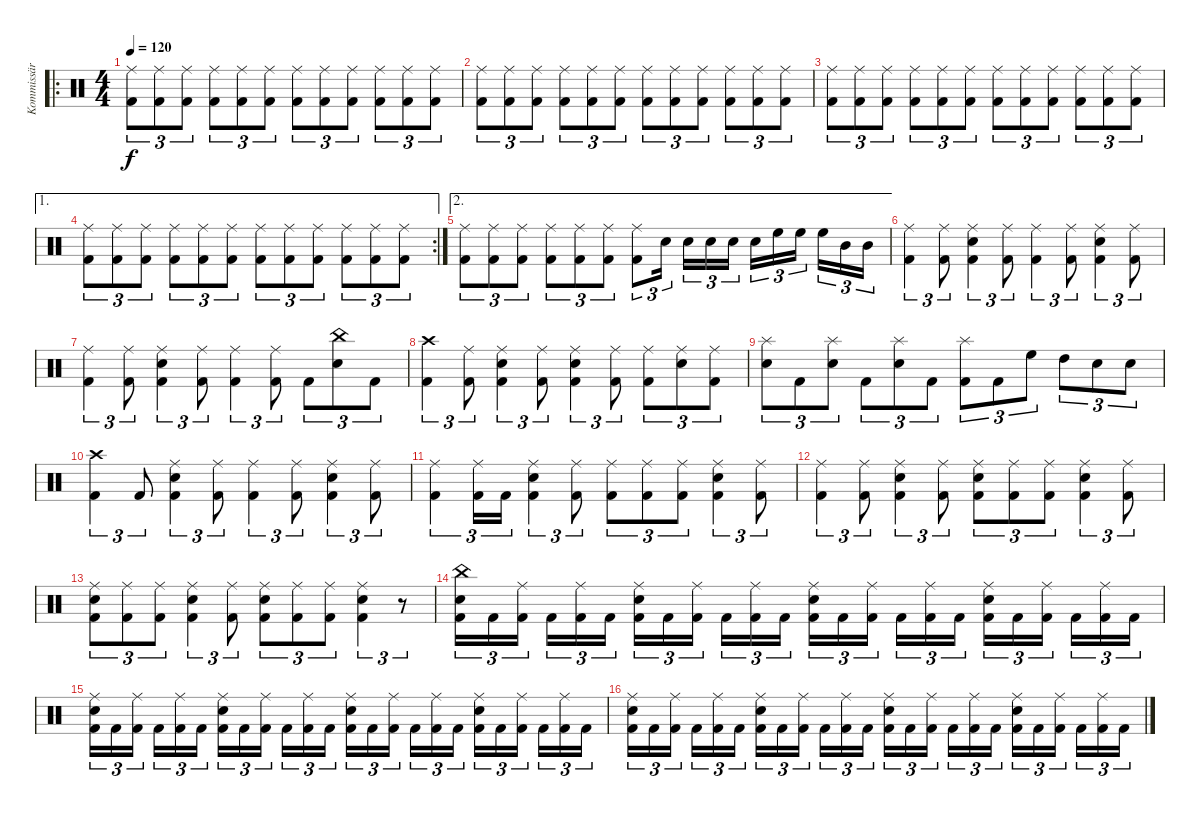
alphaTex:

\track ("Kommissär Ogrim" "Kommissär ") {instrument percussion}
\staff {score}
\articulation defaults
\ro
\ts (4 4)
\tempo 120
\clef neutral
\ks c
("Ride (middle)" "Kick (hit) 2").8{tu (3 2) dy f} ("Ride (middle)" "Kick (hit) 2").8{tu (3 2)} ("Ride (middle)" "Kick (hit) 2").8{tu (3 2)} ("Ride (middle)" "Kick (hit) 2").8{tu (3 2)} ("Ride (middle)" "Kick (hit) 2").8{tu (3 2)} ("Ride (middle)" "Kick (hit) 2").8{tu (3 2)} ("Ride (middle)" "Kick (hit) 2").8{tu (3 2)} ("Ride (middle)" "Kick (hit) 2").8{tu (3 2)} ("Ride (middle)" "Kick (hit) 2").8{tu (3 2)} ("Ride (middle)" "Kick (hit) 2").8{tu (3 2)} ("Ride (middle)" "Kick (hit) 2").8{tu (3 2)} ("Ride (middle)" "Kick (hit) 2").8{tu (3 2)} |
("Ride (middle)" "Kick (hit) 2").8{tu (3 2)} ("Ride (middle)" "Kick (hit) 2").8{tu (3 2)} ("Ride (middle)" "Kick (hit) 2").8{tu (3 2)} ("Ride (middle)" "Kick (hit) 2").8{tu (3 2)} ("Ride (middle)" "Kick (hit) 2").8{tu (3 2)} ("Ride (middle)" "Kick (hit) 2").8{tu (3 2)} ("Ride (middle)" "Kick (hit) 2").8{tu (3 2)} ("Ride (middle)" "Kick (hit) 2").8{tu (3 2)} ("Ride (middle)" "Kick (hit) 2").8{tu (3 2)} ("Ride (middle)" "Kick (hit) 2").8{tu (3 2)} ("Ride (middle)" "Kick (hit) 2").8{tu (3 2)} ("Ride (middle)" "Kick (hit) 2").8{tu (3 2)} |
("Ride (middle)" "Kick (hit) 2").8{tu (3 2)} ("Ride (middle)" "Kick (hit) 2").8{tu (3 2)} ("Ride (middle)" "Kick (hit) 2").8{tu (3 2)} ("Ride (middle)" "Kick (hit) 2").8{tu (3 2)} ("Ride (middle)" "Kick (hit) 2").8{tu (3 2)} ("Ride (middle)" "Kick (hit) 2").8{tu (3 2)} ("Ride (middle)" "Kick (hit) 2").8{tu (3 2)} ("Ride (middle)" "Kick (hit) 2").8{tu (3 2)} ("Ride (middle)" "Kick (hit) 2").8{tu (3 2)} ("Ride (middle)" "Kick (hit) 2").8{tu (3 2)} ("Ride (middle)" "Kick (hit) 2").8{tu (3 2)} ("Ride (middle)" "Kick (hit) 2").8{tu (3 2)} |
\ae 1
\rc 2
("Ride (middle)" "Kick (hit) 2").8{tu (3 2)} ("Ride (middle)" "Kick (hit) 2").8{tu (3 2)} ("Ride (middle)" "Kick (hit) 2").8{tu (3 2)} ("Ride (middle)" "Kick (hit) 2").8{tu (3 2)} ("Ride (middle)" "Kick (hit) 2").8{tu (3 2)} ("Ride (middle)" "Kick (hit) 2").8{tu (3 2)} ("Ride (middle)" "Kick (hit) 2").8{tu (3 2)} ("Ride (middle)" "Kick (hit) 2").8{tu (3 2)} ("Ride (middle)" "Kick (hit) 2").8{tu (3 2)} ("Ride (middle)" "Kick (hit) 2").8{tu (3 2)} ("Ride (middle)" "Kick (hit) 2").8{tu (3 2)} ("Ride (middle)" "Kick (hit) 2").8{tu (3 2)} |
\ae 2
("Ride (middle)" "Kick (hit) 2").8{tu (3 2)} ("Ride (middle)" "Kick (hit) 2").8{tu (3 2)} ("Ride (middle)" "Kick (hit) 2").8{tu (3 2)} ("Ride (middle)" "Kick (hit) 2").8{tu (3 2)} ("Ride (middle)" "Kick (hit) 2").8{tu (3 2)} ("Ride (middle)" "Kick (hit) 2").8{tu (3 2)} ("Ride (middle)" "Kick (hit) 2").8{tu (3 2)} "Snare (hit) 2".16{tu (3 2)} "Snare (hit) 2".16{tu (3 2)} "Snare (hit) 2".16{tu (3 2)} "Snare (hit) 2".16{tu (3 2)} "Snare (hit) 2".16{tu (3 2)} "High Floor Tom (hit)".16{tu (3 2)} "High Floor Tom (hit)".16{tu (3 2)} "High Floor Tom (hit)".16{tu (3 2)} "Mid Tom (hit)".16{tu (3 2)} "Mid Tom (hit)".16{tu (3 2)} |
("Ride (middle)" "Kick (hit) 2").4{tu (3 2)} ("Ride (middle)" "Kick (hit) 2").8{tu (3 2)} ("Snare (hit) 2" "Ride (middle)" "Kick (hit) 2").4{tu (3 2)} ("Ride (middle)" "Kick (hit) 2").8{tu (3 2)} ("Ride (middle)" "Kick (hit) 2").4{tu (3 2)} ("Ride (middle)" "Kick (hit) 2").8{tu (3 2)} ("Snare (hit) 2" "Ride (middle)" "Kick (hit) 2").4{tu (3 2)} ("Ride (middle)" "Kick (hit) 2").8{tu (3 2)} |
("Ride (middle)" "Kick (hit) 2").4{tu (3 2)} ("Ride (middle)" "Kick (hit) 2").8{tu (3 2)} ("Snare (hit) 2" "Ride (middle)" "Kick (hit) 2").4{tu (3 2)} ("Ride (middle)" "Kick (hit) 2").8{tu (3 2)} ("Ride (middle)" "Kick (hit) 2").4{tu (3 2)} ("Ride (middle)" "Kick (hit) 2").8{tu (3 2)} "Kick (hit) 2".8{tu (3 2)} ("Snare (hit) 2" "China (hit)").8{tu (3 2)} "Kick (hit) 2".8{tu (3 2)} |
("Crash high (hit)" "Kick (hit) 2").4{tu (3 2)} ("Ride (middle)" "Kick (hit) 2").8{tu (3 2)} ("Snare (hit) 2" "Ride (middle)" "Kick (hit) 2").4{tu (3 2)} ("Ride (middle)" "Kick (hit) 2").8{tu (3 2)} ("Snare (hit) 2" "Ride (middle)" "Kick (hit) 2").4{tu (3 2)} ("Ride (middle)" "Kick (hit) 2").8{tu (3 2)} ("Ride (middle)" "Kick (hit) 2").8{tu (3 2)} ("Snare (hit) 2" "Ride (middle)").8{tu (3 2)} ("Ride (middle)" "Kick (hit) 2").8{tu (3 2)} |
("Snare (hit) 2" "Splash (hit)").8{tu (3 2)} "Kick (hit) 2".8{tu (3 2)} ("Snare (hit) 2" "Splash (hit)").8{tu (3 2)} "Kick (hit) 2".8{tu (3 2)} ("Snare (hit) 2" "Splash (hit)").8{tu (3 2)} "Kick (hit) 2".8{tu (3 2)} ("Splash (hit)" "Kick (hit) 2").8{tu (3 2)} "Kick (hit) 2".8{tu (3 2)} "High Floor Tom (hit)".8{tu (3 2)} "High Tom (hit)".8{tu (3 2)} "Snare (hit) 2".8{tu (3 2)} "Snare (hit) 2".8{tu (3 2)} |
("Crash high (hit)" "Kick (hit) 2").4{tu (3 2)} "Kick (hit) 2".8{tu (3 2)} ("Snare (hit) 2" "Ride (middle)" "Kick (hit) 2").4{tu (3 2)} ("Ride (middle)" "Kick (hit) 2").8{tu (3 2)} ("Ride (middle)" "Kick (hit) 2").4{tu (3 2)} ("Ride (middle)" "Kick (hit) 2").8{tu (3 2)} ("Snare (hit) 2" "Ride (middle)" "Kick (hit) 2").4{tu (3 2)} ("Ride (middle)" "Kick (hit) 2").8{tu (3 2)} |
("Ride (middle)" "Kick (hit) 2").4{tu (3 2)} ("Ride (middle)" "Kick (hit) 2").16{tu (3 2)} "Kick (hit) 2".16{tu (3 2)} ("Snare (hit) 2" "Ride (middle)" "Kick (hit) 2").4{tu (3 2)} ("Ride (middle)" "Kick (hit) 2").8{tu (3 2)} ("Ride (middle)" "Kick (hit) 2").8{tu (3 2)} ("Ride (middle)" "Kick (hit) 2").8{tu (3 2)} ("Ride (middle)" "Kick (hit) 2").8{tu (3 2)} ("Snare (hit) 2" "Ride (middle)" "Kick (hit) 2").4{tu (3 2)} ("Ride (middle)" "Kick (hit) 2").8{tu (3 2)} |
("Ride (middle)" "Kick (hit) 2").4{tu (3 2)} ("Ride (middle)" "Kick (hit) 2").8{tu (3 2)} ("Snare (hit) 2" "Ride (middle)" "Kick (hit) 2").4{tu (3 2)} ("Ride (middle)" "Kick (hit) 2").8{tu (3 2)} ("Snare (hit) 2" "Ride (middle)" "Kick (hit) 2").8{tu (3 2)} ("Ride (middle)" "Kick (hit) 2").8{tu (3 2)} ("Ride (middle)" "Kick (hit) 2").8{tu (3 2)} ("Snare (hit) 2" "Ride (middle)" "Kick (hit) 2").4{tu (3 2)} ("Ride (middle)" "Kick (hit) 2").8{tu (3 2)} |
("Snare (hit) 2" "Ride (middle)" "Kick (hit) 2").8{tu (3 2)} ("Ride (middle)" "Kick (hit) 2").8{tu (3 2)} ("Ride (middle)" "Kick (hit) 2").8{tu (3 2)} ("Snare (hit) 2" "Ride (middle)" "Kick (hit) 2").4{tu (3 2)} ("Ride (middle)" "Kick (hit) 2").8{tu (3 2)} ("Snare (hit) 2" "Ride (middle)" "Kick (hit) 2").8{tu (3 2)} ("Ride (middle)" "Kick (hit) 2").8{tu (3 2)} ("Ride (middle)" "Kick (hit) 2").8{tu (3 2)} ("Snare (hit) 2" "Ride (middle)" "Kick (hit) 2").4{tu (3 2)} r.8{tu (3 2)} |
("Snare (hit) 2" "China (hit)" "Kick (hit) 2").16{tu (3 2)} "Kick (hit) 2".16{tu (3 2)} ("Ride (middle)" "Kick (hit) 2").16{tu (3 2)} "Kick (hit) 2".16{tu (3 2)} ("Ride (middle)" "Kick (hit) 2").16{tu (3 2)} "Kick (hit) 2".16{tu (3 2)} ("Snare (hit) 2" "Ride (middle)" "Kick (hit) 2").16{tu (3 2)} "Kick (hit) 2".16{tu (3 2)} ("Ride (middle)" "Kick (hit) 2").16{tu (3 2)} "Kick (hit) 2".16{tu (3 2)} ("Ride (middle)" "Kick (hit) 2").16{tu (3 2)} "Kick (hit) 2".16{tu (3 2)} ("Snare (hit) 2" "Ride (middle)" "Kick (hit) 2").16{tu (3 2)} "Kick (hit) 2".16{tu (3 2)} ("Ride (middle)" "Kick (hit) 2").16{tu (3 2)} "Kick (hit) 2".16{tu (3 2)} ("Ride (middle)" "Kick (hit) 2").16{tu (3 2)} "Kick (hit) 2".16{tu (3 2)} ("Snare (hit) 2" "Ride (middle)" "Kick (hit) 2").16{tu (3 2)} "Kick (hit) 2".16{tu (3 2)} ("Ride (middle)" "Kick (hit) 2").16{tu (3 2)} "Kick (hit) 2".16{tu (3 2)} ("Ride (middle)" "Kick (hit) 2").16{tu (3 2)} "Kick (hit) 2".16{tu (3 2)} |
("Snare (hit) 2" "Ride (middle)" "Kick (hit) 2").16{tu (3 2)} "Kick (hit) 2".16{tu (3 2)} ("Ride (middle)" "Kick (hit) 2").16{tu (3 2)} "Kick (hit) 2".16{tu (3 2)} ("Ride (middle)" "Kick (hit) 2").16{tu (3 2)} "Kick (hit) 2".16{tu (3 2)} ("Snare (hit) 2" "Ride (middle)" "Kick (hit) 2").16{tu (3 2)} "Kick (hit) 2".16{tu (3 2)} ("Ride (middle)" "Kick (hit) 2").16{tu (3 2)} "Kick (hit) 2".16{tu (3 2)} ("Ride (middle)" "Kick (hit) 2").16{tu (3 2)} "Kick (hit) 2".16{tu (3 2)} ("Snare (hit) 2" "Ride (middle)" "Kick (hit) 2").16{tu (3 2)} "Kick (hit) 2".16{tu (3 2)} ("Ride (middle)" "Kick (hit) 2").16{tu (3 2)} "Kick (hit) 2".16{tu (3 2)} ("Ride (middle)" "Kick (hit) 2").16{tu (3 2)} "Kick (hit) 2".16{tu (3 2)} ("Snare (hit) 2" "Ride (middle)" "Kick (hit) 2").16{tu (3 2)} "Kick (hit) 2".16{tu (3 2)} ("Ride (middle)" "Kick (hit) 2").16{tu (3 2)} "Kick (hit) 2".16{tu (3 2)} ("Ride (middle)" "Kick (hit) 2").16{tu (3 2)} "Kick (hit) 2".16{tu (3 2)} |
("Snare (hit) 2" "Ride (middle)" "Kick (hit) 2").16{tu (3 2)} "Kick (hit) 2".16{tu (3 2)} ("Ride (middle)" "Kick (hit) 2").16{tu (3 2)} "Kick (hit) 2".16{tu (3 2)} ("Ride (middle)" "Kick (hit) 2").16{tu (3 2)} "Kick (hit) 2".16{tu (3 2)} ("Snare (hit) 2" "Ride (middle)" "Kick (hit) 2").16{tu (3 2)} "Kick (hit) 2".16{tu (3 2)} ("Ride (middle)" "Kick (hit) 2").16{tu (3 2)} "Kick (hit) 2".16{tu (3 2)} ("Ride (middle)" "Kick (hit) 2").16{tu (3 2)} "Kick (hit) 2".16{tu (3 2)} ("Snare (hit) 2" "Ride (middle)" "Kick (hit) 2").16{tu (3 2)} "Kick (hit) 2".16{tu (3 2)} ("Ride (middle)" "Kick (hit) 2").16{tu (3 2)} "Kick (hit) 2".16{tu (3 2)} ("Ride (middle)" "Kick (hit) 2").16{tu (3 2)} "Kick (hit) 2".16{tu (3 2)} ("Snare (hit) 2" "Ride (middle)" "Kick (hit) 2").16{tu (3 2)} "Kick (hit) 2".16{tu (3 2)} ("Ride (middle)" "Kick (hit) 2").16{tu (3 2)} "Kick (hit) 2".16{tu (3 2)} ("Ride (middle)" "Kick (hit) 2").16{tu (3 2)} "Kick (hit) 2".16{tu (3 2)}
